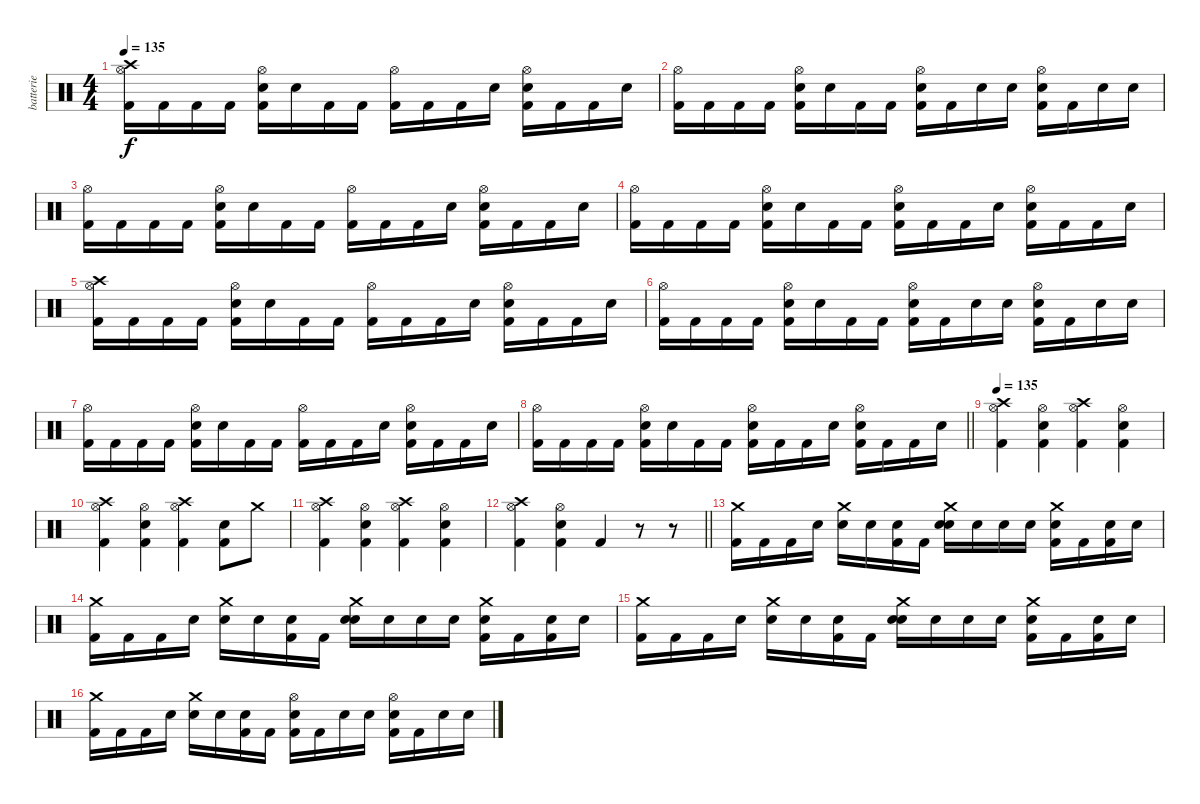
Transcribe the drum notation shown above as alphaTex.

\track ("batterie" "batterie") {instrument percussion}
\staff {score}
\articulation defaults
\ts (4 4)
\section ("" "")
\tempo 135
\clef neutral
\ks c
("Crash high (hit)" "Hi-Hat (open)" "Kick (hit) 2").16{dy f} "Kick (hit) 2".16 "Kick (hit) 2".16 "Kick (hit) 2".16 ("Snare (hit) 2" "Hi-Hat (open)" "Kick (hit) 2").16 "Snare (hit)".16 "Kick (hit) 2".16 "Kick (hit) 2".16 ("Hi-Hat (open)" "Kick (hit) 2").16 "Kick (hit) 2".16 "Kick (hit) 2".16 "Snare (hit)".16 ("Snare (hit) 2" "Hi-Hat (open)" "Kick (hit) 2").16 "Kick (hit) 2".16 "Kick (hit) 2".16 "Snare (hit)".16 |
("Hi-Hat (open)" "Kick (hit) 2").16 "Kick (hit) 2".16 "Kick (hit) 2".16 "Kick (hit) 2".16 ("Snare (hit) 2" "Hi-Hat (open)" "Kick (hit) 2").16 "Snare (hit)".16 "Kick (hit) 2".16 "Kick (hit) 2".16 ("Snare (hit)" "Hi-Hat (open)" "Kick (hit) 2").16 "Kick (hit) 2".16 "Snare (hit)".16 "Snare (hit)".16 ("Snare (hit) 2" "Hi-Hat (open)" "Kick (hit) 2").16 "Kick (hit) 2".16 "Snare (hit)".16 "Snare (hit)".16 |
("Hi-Hat (open)" "Kick (hit) 2").16 "Kick (hit) 2".16 "Kick (hit) 2".16 "Kick (hit) 2".16 ("Snare (hit) 2" "Hi-Hat (open)" "Kick (hit) 2").16 "Snare (hit)".16 "Kick (hit) 2".16 "Kick (hit) 2".16 ("Hi-Hat (open)" "Kick (hit) 2").16 "Kick (hit) 2".16 "Kick (hit) 2".16 "Snare (hit)".16 ("Snare (hit) 2" "Hi-Hat (open)" "Kick (hit) 2").16 "Kick (hit) 2".16 "Kick (hit) 2".16 "Snare (hit)".16 |
("Hi-Hat (open)" "Kick (hit) 2").16 "Kick (hit) 2".16 "Kick (hit) 2".16 "Kick (hit) 2".16 ("Snare (hit) 2" "Hi-Hat (open)" "Kick (hit) 2").16 "Snare (hit)".16 "Kick (hit) 2".16 "Kick (hit) 2".16 ("Snare (hit)" "Hi-Hat (open)" "Kick (hit) 2").16 "Kick (hit) 2".16 "Kick (hit) 2".16 "Snare (hit)".16 ("Snare (hit) 2" "Hi-Hat (open)" "Kick (hit) 2").16 "Kick (hit) 2".16 "Kick (hit) 2".16 "Snare (hit)".16 |
("Crash high (hit)" "Hi-Hat (open)" "Kick (hit) 2").16 "Kick (hit) 2".16 "Kick (hit) 2".16 "Kick (hit) 2".16 ("Snare (hit) 2" "Hi-Hat (open)" "Kick (hit) 2").16 "Snare (hit)".16 "Kick (hit) 2".16 "Kick (hit) 2".16 ("Hi-Hat (open)" "Kick (hit) 2").16 "Kick (hit) 2".16 "Kick (hit) 2".16 "Snare (hit)".16 ("Snare (hit) 2" "Hi-Hat (open)" "Kick (hit) 2").16 "Kick (hit) 2".16 "Kick (hit) 2".16 "Snare (hit)".16 |
("Hi-Hat (open)" "Kick (hit) 2").16 "Kick (hit) 2".16 "Kick (hit) 2".16 "Kick (hit) 2".16 ("Snare (hit) 2" "Hi-Hat (open)" "Kick (hit) 2").16 "Snare (hit)".16 "Kick (hit) 2".16 "Kick (hit) 2".16 ("Snare (hit)" "Hi-Hat (open)" "Kick (hit) 2").16 "Kick (hit) 2".16 "Snare (hit)".16 "Snare (hit)".16 ("Snare (hit) 2" "Hi-Hat (open)" "Kick (hit) 2").16 "Kick (hit) 2".16 "Snare (hit)".16 "Snare (hit)".16 |
("Hi-Hat (open)" "Kick (hit) 2").16 "Kick (hit) 2".16 "Kick (hit) 2".16 "Kick (hit) 2".16 ("Snare (hit) 2" "Hi-Hat (open)" "Kick (hit) 2").16 "Snare (hit)".16 "Kick (hit) 2".16 "Kick (hit) 2".16 ("Hi-Hat (open)" "Kick (hit) 2").16 "Kick (hit) 2".16 "Kick (hit) 2".16 "Snare (hit)".16 ("Snare (hit) 2" "Hi-Hat (open)" "Kick (hit) 2").16 "Kick (hit) 2".16 "Kick (hit) 2".16 "Snare (hit)".16 |
\barLineRight lightlight
("Hi-Hat (open)" "Kick (hit) 2").16 "Kick (hit) 2".16 "Kick (hit) 2".16 "Kick (hit) 2".16 ("Snare (hit) 2" "Hi-Hat (open)" "Kick (hit) 2").16 "Snare (hit)".16 "Kick (hit) 2".16 "Kick (hit) 2".16 ("Snare (hit)" "Hi-Hat (open)" "Kick (hit) 2").16 "Kick (hit) 2".16 "Kick (hit) 2".16 "Snare (hit)".16 ("Snare (hit) 2" "Hi-Hat (open)" "Kick (hit) 2").16 "Kick (hit) 2".16 "Kick (hit) 2".16 "Snare (hit)".16 |
\section ("" "")
\tempo 135
("Crash high (hit)" "Hi-Hat (open)" "Kick (hit) 2").4 ("Snare (hit) 2" "Hi-Hat (open)" "Kick (hit) 2").4 ("Crash high (hit)" "Hi-Hat (open)" "Kick (hit) 2").4 ("Snare (hit) 2" "Hi-Hat (open)" "Kick (hit) 2").4 |
("Crash high (hit)" "Hi-Hat (open)" "Kick (hit) 2").4 ("Snare (hit) 2" "Hi-Hat (open)" "Kick (hit) 2").4 ("Crash high (hit)" "Hi-Hat (open)" "Kick (hit) 2").4 ("Snare (hit) 2" "Kick (hit) 2").8 "Crash medium (hit)".8 |
("Crash high (hit)" "Hi-Hat (open)" "Kick (hit) 2").4 ("Snare (hit) 2" "Hi-Hat (open)" "Kick (hit) 2").4 ("Crash high (hit)" "Hi-Hat (open)" "Kick (hit) 2").4 ("Snare (hit) 2" "Hi-Hat (open)" "Kick (hit) 2").4 |
\barLineRight lightlight
("Crash high (hit)" "Hi-Hat (open)" "Kick (hit) 2").4 ("Snare (hit) 2" "Hi-Hat (open)" "Kick (hit) 2").4 "Kick (hit) 2".4 r.8 r.8 |
\section ("" "")
("Crash medium (hit)" "Kick (hit) 2").16 "Kick (hit) 2".16 "Kick (hit) 2".16 "Snare (hit)".16 ("Crash medium (hit)" "Snare (hit)").16 "Snare (hit)".16 ("Snare (hit)" "Kick (hit) 2").16 "Kick (hit) 2".16 ("Snare (hit) 2" "Crash medium (hit)" "Snare (hit)").16 "Snare (hit)".16 "Snare (hit)".16 "Snare (hit)".16 ("Snare (hit)" "Crash medium (hit)" "Kick (hit) 2").16 "Kick (hit) 2".16 ("Snare (hit)" "Kick (hit) 2").16 "Snare (hit)".16 |
("Crash medium (hit)" "Kick (hit) 2").16 "Kick (hit) 2".16 "Kick (hit) 2".16 "Snare (hit)".16 ("Crash medium (hit)" "Snare (hit)").16 "Snare (hit)".16 ("Snare (hit)" "Kick (hit) 2").16 "Kick (hit) 2".16 ("Snare (hit) 2" "Crash medium (hit)" "Snare (hit)").16 "Snare (hit)".16 "Snare (hit)".16 "Snare (hit)".16 ("Snare (hit)" "Crash medium (hit)" "Kick (hit) 2").16 "Kick (hit) 2".16 ("Snare (hit)" "Kick (hit) 2").16 "Snare (hit)".16 |
("Crash medium (hit)" "Kick (hit) 2").16 "Kick (hit) 2".16 "Kick (hit) 2".16 "Snare (hit)".16 ("Crash medium (hit)" "Snare (hit)").16 "Snare (hit)".16 ("Snare (hit)" "Kick (hit) 2").16 "Kick (hit) 2".16 ("Snare (hit) 2" "Crash medium (hit)" "Snare (hit)").16 "Snare (hit)".16 "Snare (hit)".16 "Snare (hit)".16 ("Snare (hit)" "Crash medium (hit)" "Kick (hit) 2").16 "Kick (hit) 2".16 ("Snare (hit)" "Kick (hit) 2").16 "Snare (hit)".16 |
("Crash medium (hit)" "Kick (hit) 2").16 "Kick (hit) 2".16 "Kick (hit) 2".16 "Snare (hit)".16 ("Crash medium (hit)" "Snare (hit)").16 "Snare (hit)".16 ("Snare (hit)" "Kick (hit) 2").16 "Kick (hit) 2".16 ("Snare (hit)" "Hi-Hat (open)" "Kick (hit) 2").16 "Kick (hit) 2".16 "Snare (hit)".16 "Snare (hit)".16 ("Snare (hit) 2" "Hi-Hat (open)" "Kick (hit) 2").16 "Kick (hit) 2".16 "Snare (hit)".16 "Snare (hit)".16
